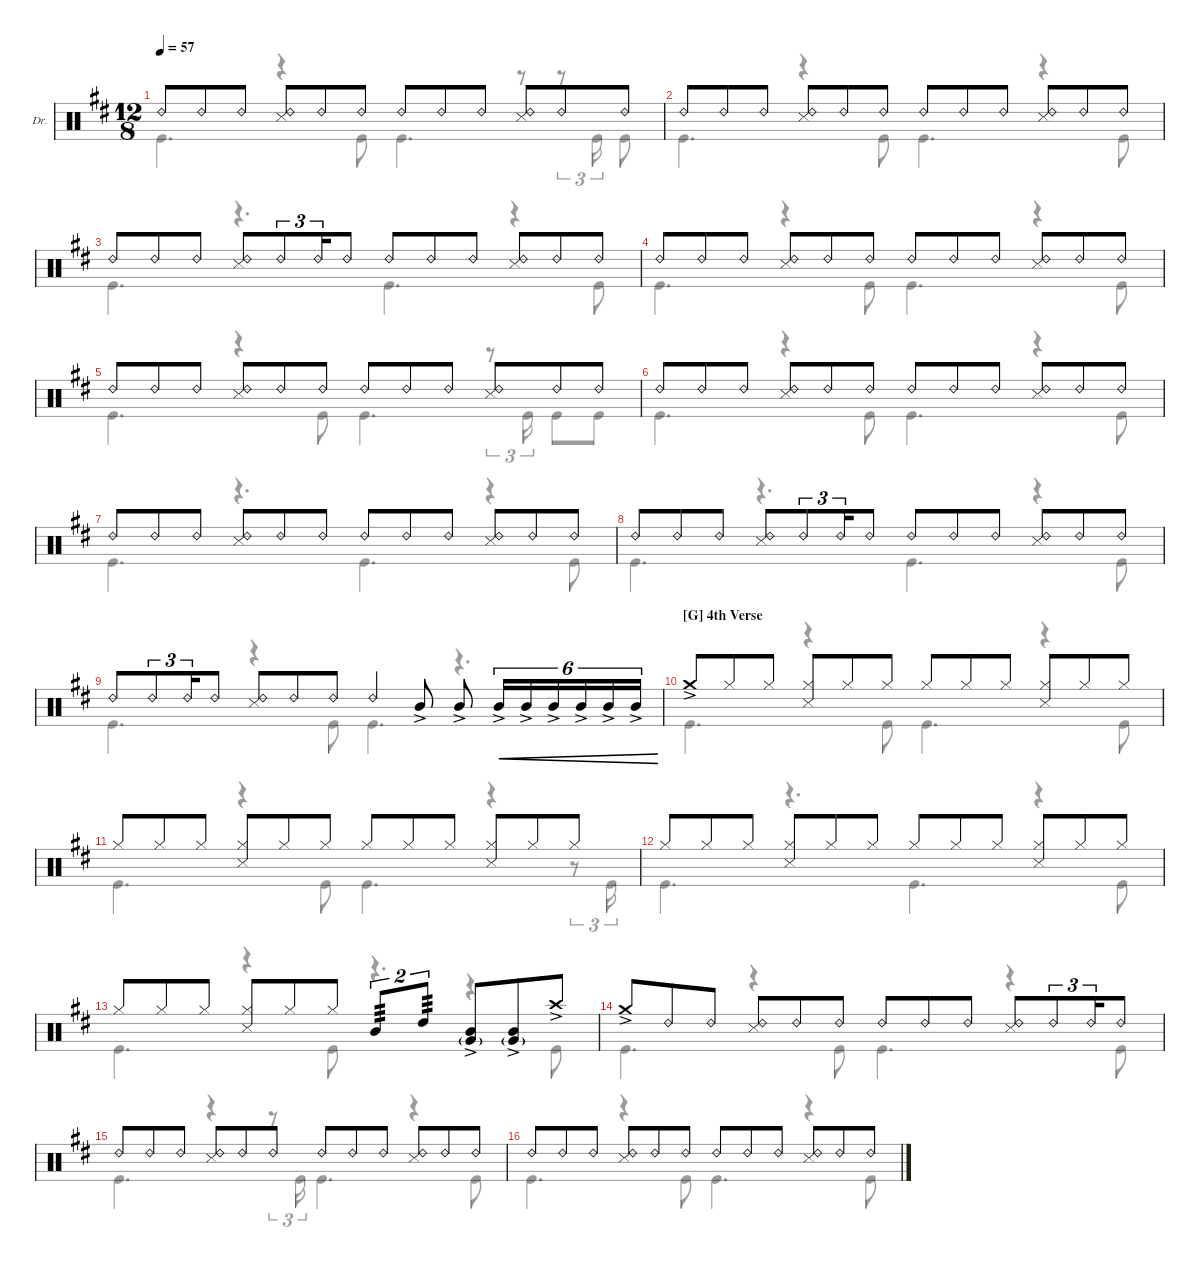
\defaultSystemsLayout 4
\hideDynamics
\bracketExtendMode groupsimilarinstruments
\firstSystemTrackNameOrientation horizontal
\otherSystemsTrackNameOrientation horizontal
\track ("Drums" "Dr.") {instrument percussion}
\staff {score}
\articulation defaults
\voice
\ts (12 8)
\tempo 57
\clef neutral
\ks d "Ride (bell) 2".8{dy p} "Ride (bell) 2".8 "Ride (bell) 2".8
("Ride (bell) 2" "Snare (side stick) 3").8 "Ride (bell) 2".8 "Ride (bell) 2".8 "Ride (bell) 2".8 "Ride (bell) 2".8 "Ride (bell) 2".8 ("Ride (bell) 2" "Snare (side stick) 3").8 "Ride (bell) 2".8 "Ride (bell) 2".8 |
"Ride (bell) 2".8 "Ride (bell) 2".8 "Ride (bell) 2".8 ("Ride (bell) 2" "Snare (side stick) 3").8 "Ride (bell) 2".8 "Ride (bell) 2".8 "Ride (bell) 2".8 "Ride (bell) 2".8 "Ride (bell) 2".8 ("Ride (bell) 2" "Snare (side stick) 3").8 "Ride (bell) 2".8 "Ride (bell) 2".8 |
"Ride (bell) 2".8 "Ride (bell) 2".8 "Ride (bell) 2".8 ("Ride (bell) 2" "Snare (side stick) 3").8{beam merge} "Ride (bell) 2".8{tu (3 2) beam merge} "Ride (bell) 2".16{tu (3 2) beam merge} "Ride (bell) 2".8 "Ride (bell) 2".8 "Ride (bell) 2".8 "Ride (bell) 2".8 ("Ride (bell) 2" "Snare (side stick) 3").8 "Ride (bell) 2".8 "Ride (bell) 2".8 |
"Ride (bell) 2".8 "Ride (bell) 2".8 "Ride (bell) 2".8 ("Ride (bell) 2" "Snare (side stick) 3").8 "Ride (bell) 2".8 "Ride (bell) 2".8 "Ride (bell) 2".8 "Ride (bell) 2".8 "Ride (bell) 2".8 ("Ride (bell) 2" "Snare (side stick) 3").8 "Ride (bell) 2".8 "Ride (bell) 2".8 |
"Ride (bell) 2".8 "Ride (bell) 2".8 "Ride (bell) 2".8 ("Ride (bell) 2" "Snare (side stick) 3").8 "Ride (bell) 2".8 "Ride (bell) 2".8 "Ride (bell) 2".8 "Ride (bell) 2".8 "Ride (bell) 2".8 ("Ride (bell) 2" "Snare (side stick) 3").8 "Ride (bell) 2".8 "Ride (bell) 2".8 |
"Ride (bell) 2".8 "Ride (bell) 2".8 "Ride (bell) 2".8 ("Ride (bell) 2" "Snare (side stick) 3").8 "Ride (bell) 2".8 "Ride (bell) 2".8 "Ride (bell) 2".8 "Ride (bell) 2".8 "Ride (bell) 2".8 ("Ride (bell) 2" "Snare (side stick) 3").8 "Ride (bell) 2".8 "Ride (bell) 2".8 |
"Ride (bell) 2".8 "Ride (bell) 2".8 "Ride (bell) 2".8 ("Ride (bell) 2" "Snare (side stick) 3").8 "Ride (bell) 2".8 "Ride (bell) 2".8 "Ride (bell) 2".8 "Ride (bell) 2".8 "Ride (bell) 2".8 ("Ride (bell) 2" "Snare (side stick) 3").8 "Ride (bell) 2".8 "Ride (bell) 2".8 |
"Ride (bell) 2".8 "Ride (bell) 2".8 "Ride (bell) 2".8 ("Ride (bell) 2" "Snare (side stick) 3").8{beam merge} "Ride (bell) 2".8{tu (3 2) beam merge} "Ride (bell) 2".16{tu (3 2) beam merge} "Ride (bell) 2".8 "Ride (bell) 2".8 "Ride (bell) 2".8 "Ride (bell) 2".8 ("Ride (bell) 2" "Snare (side stick) 3").8 "Ride (bell) 2".8 "Ride (bell) 2".8 |
"Ride (bell) 2".8{beam merge} "Ride (bell) 2".8{tu (3 2) beam merge} "Ride (bell) 2".16{tu (3 2) beam merge} "Ride (bell) 2".8 ("Ride (bell) 2" "Snare (side stick) 3").8 "Ride (bell) 2".8 "Ride (bell) 2".8 "Ride (bell) 2".4 "Mid Tom (hit)"{ac}.8 "Mid Tom (hit)"{ac}.8 "Mid Tom (hit)"{ac}.16{tu (6 4) cre} "Mid Tom (hit)"{ac}.16{tu (6 4) cre} "Mid Tom (hit)"{ac}.16{tu (6 4) cre} "Mid Tom (hit)"{ac}.16{tu (6 4) cre} "Mid Tom (hit)"{ac}.16{tu (6 4) cre} "Mid Tom (hit)"{ac}.16{tu (6 4) cre} |
\section ("G" "4th Verse")
"Crash medium (hit)"{ac}.8 "Hi-Hat (closed)".8 "Hi-Hat (closed)".8 ("Hi-Hat (closed)" "Snare (side stick) 3").8 "Hi-Hat (closed)".8 "Hi-Hat (closed)".8 "Hi-Hat (closed)".8 "Hi-Hat (closed)".8 "Hi-Hat (closed)".8 ("Hi-Hat (closed)" "Snare (side stick) 3").8 "Hi-Hat (closed)".8 "Hi-Hat (closed)".8 |
"Hi-Hat (closed)".8 "Hi-Hat (closed)".8 "Hi-Hat (closed)".8 ("Hi-Hat (closed)" "Snare (side stick) 3").8 "Hi-Hat (closed)".8 "Hi-Hat (closed)".8 "Hi-Hat (closed)".8 "Hi-Hat (closed)".8 "Hi-Hat (closed)".8 ("Hi-Hat (closed)" "Snare (side stick) 3").8 "Hi-Hat (closed)".8 "Hi-Hat (closed)".8 |
"Hi-Hat (closed)".8 "Hi-Hat (closed)".8 "Hi-Hat (closed)".8 ("Hi-Hat (closed)" "Snare (side stick) 3").8 "Hi-Hat (closed)".8 "Hi-Hat (closed)".8 "Hi-Hat (closed)".8 "Hi-Hat (closed)".8 "Hi-Hat (closed)".8 ("Hi-Hat (closed)" "Snare (side stick) 3").8 "Hi-Hat (closed)".8 "Hi-Hat (closed)".8 |
"Hi-Hat (closed)".8 "Hi-Hat (closed)".8 "Hi-Hat (closed)".8 ("Hi-Hat (closed)" "Snare (side stick) 3").8 "Hi-Hat (closed)".8 "Hi-Hat (closed)".8 "Mid Tom (hit)".8{tu (2 3) tp 3} "High Tom (hit)".8{tu (2 3) tp 3} ("Mid Tom (hit)"{ac} "Very Low Tom (hit)"{g}).8 ("Mid Tom (hit)"{ac} "Very Low Tom (hit)"{g}).8 "Crash high (hit)"{ac}.8 |
"Crash medium (hit)"{ac}.8 "Ride (bell) 2".8 "Ride (bell) 2".8 ("Ride (bell) 2" "Snare (side stick) 3").8 "Ride (bell) 2".8 "Ride (bell) 2".8 "Ride (bell) 2".8 "Ride (bell) 2".8 "Ride (bell) 2".8 ("Ride (bell) 2" "Snare (side stick) 3").8{beam merge} "Ride (bell) 2".8{tu (3 2) beam merge} "Ride (bell) 2".16{tu (3 2) beam merge} "Ride (bell) 2".8 |
"Ride (bell) 2".8 "Ride (bell) 2".8 "Ride (bell) 2".8 ("Ride (bell) 2" "Snare (side stick) 3").8 "Ride (bell) 2".8 "Ride (bell) 2".8 "Ride (bell) 2".8 "Ride (bell) 2".8 "Ride (bell) 2".8 ("Ride (bell) 2" "Snare (side stick) 3").8 "Ride (bell) 2".8 "Ride (bell) 2".8 |
"Ride (bell) 2".8 "Ride (bell) 2".8 "Ride (bell) 2".8 ("Ride (bell) 2" "Snare (side stick) 3").8 "Ride (bell) 2".8 "Ride (bell) 2".8 "Ride (bell) 2".8 "Ride (bell) 2".8 "Ride (bell) 2".8 ("Ride (bell) 2" "Snare (side stick) 3").8 "Ride (bell) 2".8 "Ride (bell) 2".8
\voice
\clef neutral
\ottava regular
\simile none
\ks d "Kick (hit)".4{d dy pp}
r.4 "Kick (hit)".8 "Kick (hit)".4{d} r.8 r.8{tu (3 2)} "Kick (hit)".16{tu (3 2)} "Kick (hit)".8 |
"Kick (hit)".4{d} r.4 "Kick (hit)".8 "Kick (hit)".4{d} r.4 "Kick (hit)".8 |
"Kick (hit)".4{d} r.4{d} "Kick (hit)".4{d} r.4 "Kick (hit)".8 |
"Kick (hit)".4{d} r.4 "Kick (hit)".8 "Kick (hit)".4{d} r.4 "Kick (hit)".8 |
"Kick (hit)".4{d} r.4 "Kick (hit)".8 "Kick (hit)".4{d} r.8{tu (3 2)} "Kick (hit)".16{tu (3 2)} "Kick (hit)".8 "Kick (hit)".8 |
"Kick (hit)".4{d} r.4 "Kick (hit)".8 "Kick (hit)".4{d} r.4 "Kick (hit)".8 |
"Kick (hit)".4{d} r.4{d} "Kick (hit)".4{d} r.4 "Kick (hit)".8 |
"Kick (hit)".4{d} r.4{d} "Kick (hit)".4{d} r.4 "Kick (hit)".8 |
"Kick (hit)".4{d} r.4 "Kick (hit)".8 "Kick (hit)".4{d} r.4{d} |
"Kick (hit)".4{d dy p} r.4 "Kick (hit)".8 "Kick (hit)".4{d} r.4 "Kick (hit)".8 |
"Kick (hit)".4{d} r.4 "Kick (hit)".8 "Kick (hit)".4{d} r.4 r.8{tu (3 2)} "Kick (hit)".16{tu (3 2)} |
"Kick (hit)".4{d} r.4{d} "Kick (hit)".4{d} r.4 "Kick (hit)".8 |
"Kick (hit)".4{d} r.4 "Kick (hit)".8 r.4{d} r.4 "Kick (hit)".8 |
"Kick (hit)".4{d} r.4 "Kick (hit)".8 "Kick (hit)".4{d} r.4 "Kick (hit)".8 |
"Kick (hit)".4{d} r.4 r.8{tu (3 2)} "Kick (hit)".16{tu (3 2)} "Kick (hit)".4{d} r.4 "Kick (hit)".8 |
"Kick (hit)".4{d} r.4 "Kick (hit)".8 "Kick (hit)".4{d} r.4 "Kick (hit)".8
